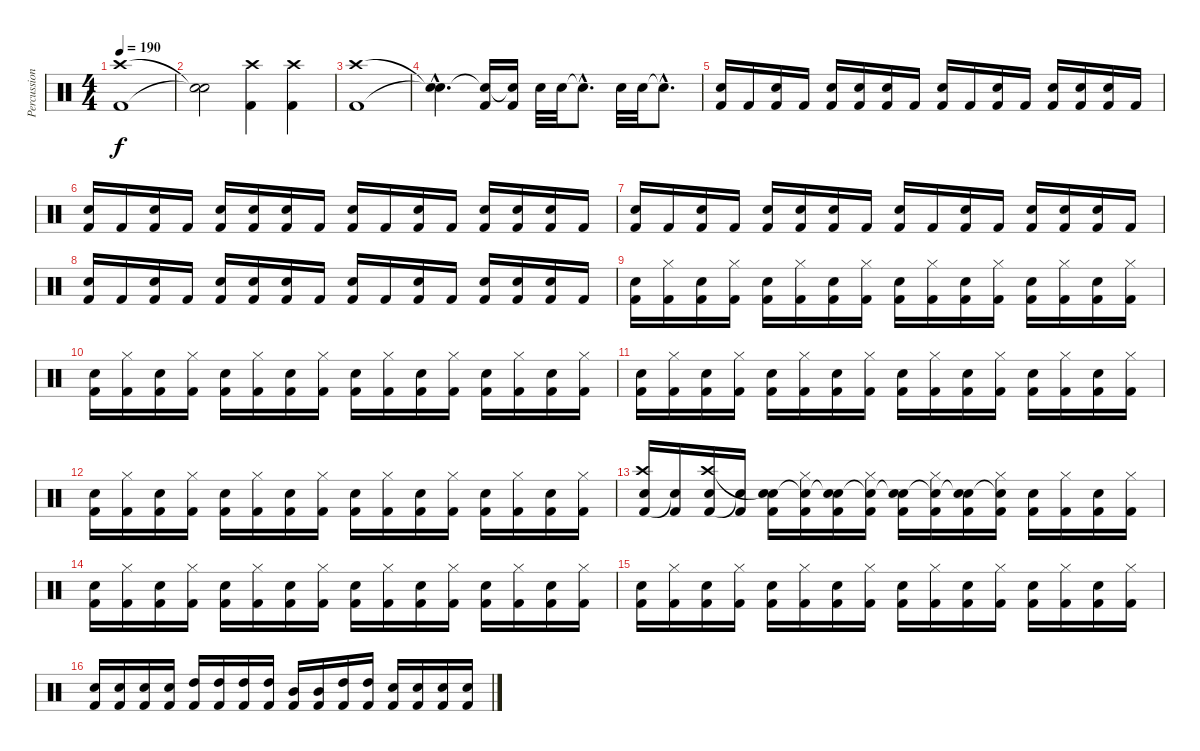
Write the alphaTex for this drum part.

\track ("Percussion" "Percussion") {instrument percussion}
\staff {score}
\articulation defaults
\ts (4 4)
\tempo 190
\clef neutral
\ks c
("Kick (hit) 2" "Crash high (hit)").1{dy f} |
("Snare (hit)"{t} "Snare (hit)"{t}).2 ("Kick (hit) 2" "Crash high (hit)").4 ("Kick (hit) 2" "Crash high (hit)").4 |
("Kick (hit) 2" "Crash high (hit)").1 |
("Snare (hit)"{hac t} "Snare (hit)"{hac t}).4{d} ("Snare (hit)"{t} "Kick (hit) 2").16 ("Snare (hit)"{t} "Kick (hit) 2").16 "Snare (hit) 2".32 "Snare (hit) 2".32 "Snare (hit)"{hac t}.8{d} "Snare (hit) 2".32 "Snare (hit) 2".32 "Snare (hit)"{hac t}.8{d} |
("Kick (hit) 2" "Snare (hit) 2").16 "Kick (hit) 2".16 ("Kick (hit) 2" "Snare (hit) 2").16 "Kick (hit) 2".16 ("Kick (hit) 2" "Snare (hit) 2").16 ("Kick (hit) 2" "Snare (hit) 2").16 ("Kick (hit) 2" "Snare (hit) 2").16 "Kick (hit) 2".16 ("Kick (hit) 2" "Snare (hit) 2").16 "Kick (hit) 2".16 ("Kick (hit) 2" "Snare (hit) 2").16 "Kick (hit) 2".16 ("Kick (hit) 2" "Snare (hit) 2").16 ("Kick (hit) 2" "Snare (hit) 2").16 ("Kick (hit) 2" "Snare (hit) 2").16 "Kick (hit) 2".16 |
("Kick (hit) 2" "Snare (hit) 2").16 "Kick (hit) 2".16 ("Kick (hit) 2" "Snare (hit) 2").16 "Kick (hit) 2".16 ("Kick (hit) 2" "Snare (hit) 2").16 ("Kick (hit) 2" "Snare (hit) 2").16 ("Kick (hit) 2" "Snare (hit) 2").16 "Kick (hit) 2".16 ("Kick (hit) 2" "Snare (hit) 2").16 "Kick (hit) 2".16 ("Kick (hit) 2" "Snare (hit) 2").16 "Kick (hit) 2".16 ("Kick (hit) 2" "Snare (hit) 2").16 ("Kick (hit) 2" "Snare (hit) 2").16 ("Kick (hit) 2" "Snare (hit) 2").16 "Kick (hit) 2".16 |
("Kick (hit) 2" "Snare (hit) 2").16 "Kick (hit) 2".16 ("Kick (hit) 2" "Snare (hit) 2").16 "Kick (hit) 2".16 ("Kick (hit) 2" "Snare (hit) 2").16 ("Kick (hit) 2" "Snare (hit) 2").16 ("Kick (hit) 2" "Snare (hit) 2").16 "Kick (hit) 2".16 ("Kick (hit) 2" "Snare (hit) 2").16 "Kick (hit) 2".16 ("Kick (hit) 2" "Snare (hit) 2").16 "Kick (hit) 2".16 ("Kick (hit) 2" "Snare (hit) 2").16 ("Kick (hit) 2" "Snare (hit) 2").16 ("Kick (hit) 2" "Snare (hit) 2").16 "Kick (hit) 2".16 |
("Kick (hit) 2" "Snare (hit) 2").16 "Kick (hit) 2".16 ("Kick (hit) 2" "Snare (hit) 2").16 "Kick (hit) 2".16 ("Kick (hit) 2" "Snare (hit) 2").16 ("Kick (hit) 2" "Snare (hit) 2").16 ("Kick (hit) 2" "Snare (hit) 2").16 "Kick (hit) 2".16 ("Kick (hit) 2" "Snare (hit) 2").16 "Kick (hit) 2".16 ("Kick (hit) 2" "Snare (hit) 2").16 "Kick (hit) 2".16 ("Kick (hit) 2" "Snare (hit) 2").16 ("Kick (hit) 2" "Snare (hit) 2").16 ("Kick (hit) 2" "Snare (hit) 2").16 "Kick (hit) 2".16 |
("Snare (hit) 2" "Kick (hit) 2").16 ("Hi-Hat (closed)" "Kick (hit) 2").16 ("Snare (hit) 2" "Kick (hit) 2").16 ("Hi-Hat (closed)" "Kick (hit) 2").16 ("Snare (hit) 2" "Kick (hit) 2").16 ("Hi-Hat (closed)" "Kick (hit) 2").16 ("Snare (hit) 2" "Kick (hit) 2").16 ("Hi-Hat (closed)" "Kick (hit) 2").16 ("Snare (hit) 2" "Kick (hit) 2").16 ("Hi-Hat (closed)" "Kick (hit) 2").16 ("Snare (hit) 2" "Kick (hit) 2").16 ("Hi-Hat (closed)" "Kick (hit) 2").16 ("Snare (hit) 2" "Kick (hit) 2").16 ("Hi-Hat (closed)" "Kick (hit) 2").16 ("Snare (hit) 2" "Kick (hit) 2").16 ("Hi-Hat (closed)" "Kick (hit) 2").16 |
("Snare (hit) 2" "Kick (hit) 2").16 ("Hi-Hat (closed)" "Kick (hit) 2").16 ("Snare (hit) 2" "Kick (hit) 2").16 ("Hi-Hat (closed)" "Kick (hit) 2").16 ("Snare (hit) 2" "Kick (hit) 2").16 ("Hi-Hat (closed)" "Kick (hit) 2").16 ("Snare (hit) 2" "Kick (hit) 2").16 ("Hi-Hat (closed)" "Kick (hit) 2").16 ("Snare (hit) 2" "Kick (hit) 2").16 ("Hi-Hat (closed)" "Kick (hit) 2").16 ("Snare (hit) 2" "Kick (hit) 2").16 ("Hi-Hat (closed)" "Kick (hit) 2").16 ("Snare (hit) 2" "Kick (hit) 2").16 ("Hi-Hat (closed)" "Kick (hit) 2").16 ("Snare (hit) 2" "Kick (hit) 2").16 ("Hi-Hat (closed)" "Kick (hit) 2").16 |
("Snare (hit) 2" "Kick (hit) 2").16 ("Hi-Hat (closed)" "Kick (hit) 2").16 ("Snare (hit) 2" "Kick (hit) 2").16 ("Hi-Hat (closed)" "Kick (hit) 2").16 ("Snare (hit) 2" "Kick (hit) 2").16 ("Hi-Hat (closed)" "Kick (hit) 2").16 ("Snare (hit) 2" "Kick (hit) 2").16 ("Hi-Hat (closed)" "Kick (hit) 2").16 ("Snare (hit) 2" "Kick (hit) 2").16 ("Hi-Hat (closed)" "Kick (hit) 2").16 ("Snare (hit) 2" "Kick (hit) 2").16 ("Hi-Hat (closed)" "Kick (hit) 2").16 ("Snare (hit) 2" "Kick (hit) 2").16 ("Hi-Hat (closed)" "Kick (hit) 2").16 ("Snare (hit) 2" "Kick (hit) 2").16 ("Hi-Hat (closed)" "Kick (hit) 2").16 |
("Snare (hit) 2" "Kick (hit) 2").16 ("Hi-Hat (closed)" "Kick (hit) 2").16 ("Snare (hit) 2" "Kick (hit) 2").16 ("Hi-Hat (closed)" "Kick (hit) 2").16 ("Snare (hit) 2" "Kick (hit) 2").16 ("Hi-Hat (closed)" "Kick (hit) 2").16 ("Snare (hit) 2" "Kick (hit) 2").16 ("Hi-Hat (closed)" "Kick (hit) 2").16 ("Snare (hit) 2" "Kick (hit) 2").16 ("Hi-Hat (closed)" "Kick (hit) 2").16 ("Snare (hit) 2" "Kick (hit) 2").16 ("Hi-Hat (closed)" "Kick (hit) 2").16 ("Snare (hit) 2" "Kick (hit) 2").16 ("Hi-Hat (closed)" "Kick (hit) 2").16 ("Snare (hit) 2" "Kick (hit) 2").16 ("Hi-Hat (closed)" "Kick (hit) 2").16 |
("Snare (hit) 2" "Kick (hit) 2" "Crash high (hit)").16 ("Kick (hit) 2" "Snare (hit)"{t}).16 ("Snare (hit) 2" "Kick (hit) 2" "Crash high (hit)").16 ("Kick (hit) 2" "Snare (hit)"{t}).16 ("Snare (hit) 2" "Kick (hit) 2" "Snare (hit)"{t}).16 ("Hi-Hat (closed)" "Kick (hit) 2" "Snare (hit)"{t}).16 ("Snare (hit) 2" "Kick (hit) 2" "Snare (hit)"{t}).16 ("Hi-Hat (closed)" "Kick (hit) 2" "Snare (hit)"{t}).16 ("Snare (hit) 2" "Kick (hit) 2" "Snare (hit)"{t}).16 ("Hi-Hat (closed)" "Kick (hit) 2" "Snare (hit)"{t}).16 ("Snare (hit) 2" "Kick (hit) 2" "Snare (hit)"{t}).16 ("Hi-Hat (closed)" "Kick (hit) 2" "Snare (hit)"{t}).16 ("Snare (hit) 2" "Kick (hit) 2").16 ("Hi-Hat (closed)" "Kick (hit) 2").16 ("Snare (hit) 2" "Kick (hit) 2").16 ("Hi-Hat (closed)" "Kick (hit) 2").16 |
("Snare (hit) 2" "Kick (hit) 2").16 ("Hi-Hat (closed)" "Kick (hit) 2").16 ("Snare (hit) 2" "Kick (hit) 2").16 ("Hi-Hat (closed)" "Kick (hit) 2").16 ("Snare (hit) 2" "Kick (hit) 2").16 ("Hi-Hat (closed)" "Kick (hit) 2").16 ("Snare (hit) 2" "Kick (hit) 2").16 ("Hi-Hat (closed)" "Kick (hit) 2").16 ("Snare (hit) 2" "Kick (hit) 2").16 ("Hi-Hat (closed)" "Kick (hit) 2").16 ("Snare (hit) 2" "Kick (hit) 2").16 ("Hi-Hat (closed)" "Kick (hit) 2").16 ("Snare (hit) 2" "Kick (hit) 2").16 ("Hi-Hat (closed)" "Kick (hit) 2").16 ("Snare (hit) 2" "Kick (hit) 2").16 ("Hi-Hat (closed)" "Kick (hit) 2").16 |
("Snare (hit) 2" "Kick (hit) 2").16 ("Hi-Hat (closed)" "Kick (hit) 2").16 ("Snare (hit) 2" "Kick (hit) 2").16 ("Hi-Hat (closed)" "Kick (hit) 2").16 ("Snare (hit) 2" "Kick (hit) 2").16 ("Hi-Hat (closed)" "Kick (hit) 2").16 ("Snare (hit) 2" "Kick (hit) 2").16 ("Hi-Hat (closed)" "Kick (hit) 2").16 ("Snare (hit) 2" "Kick (hit) 2").16 ("Hi-Hat (closed)" "Kick (hit) 2").16 ("Snare (hit) 2" "Kick (hit) 2").16 ("Hi-Hat (closed)" "Kick (hit) 2").16 ("Snare (hit) 2" "Kick (hit) 2").16 ("Hi-Hat (closed)" "Kick (hit) 2").16 ("Snare (hit) 2" "Kick (hit) 2").16 ("Hi-Hat (closed)" "Kick (hit) 2").16 |
("Snare (hit) 2" "Kick (hit) 2").16 ("Snare (hit) 2" "Kick (hit) 2").16 ("Snare (hit) 2" "Kick (hit) 2").16 ("Snare (hit) 2" "Kick (hit) 2").16 ("High Tom (hit)" "Kick (hit) 2").16 ("High Tom (hit)" "Kick (hit) 2").16 ("High Tom (hit)" "Kick (hit) 2").16 ("High Tom (hit)" "Kick (hit) 2").16 ("Mid Tom (hit)" "Kick (hit) 2").16 ("Mid Tom (hit)" "Kick (hit) 2").16 ("High Tom (hit)" "Kick (hit) 2").16 ("High Tom (hit)" "Kick (hit) 2").16 ("Snare (hit) 2" "Kick (hit) 2").16 ("Snare (hit) 2" "Kick (hit) 2").16 ("Snare (hit) 2" "Kick (hit) 2").16 ("Snare (hit) 2" "Kick (hit) 2").16
